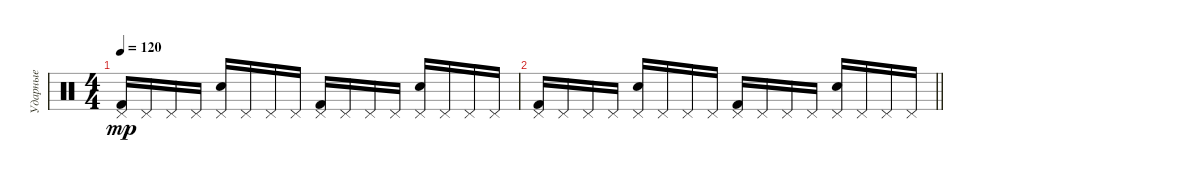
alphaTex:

\track ("Ударные" "Ударные") {instrument percussion}
\staff {score}
\articulation defaults
\ts (4 4)
\tempo 120
\clef neutral
\ks c
("Pedal Hi-Hat (hit)" "Kick (hit) 2").16{dy mp} "Pedal Hi-Hat (hit)".16 "Pedal Hi-Hat (hit)".16 "Pedal Hi-Hat (hit)".16 ("Pedal Hi-Hat (hit)" "Snare (hit) 2").16 "Pedal Hi-Hat (hit)".16 "Pedal Hi-Hat (hit)".16 "Pedal Hi-Hat (hit)".16 ("Pedal Hi-Hat (hit)" "Kick (hit) 2").16 "Pedal Hi-Hat (hit)".16 "Pedal Hi-Hat (hit)".16 "Pedal Hi-Hat (hit)".16 ("Pedal Hi-Hat (hit)" "Snare (hit) 2").16 "Pedal Hi-Hat (hit)".16 "Pedal Hi-Hat (hit)".16 "Pedal Hi-Hat (hit)".16 |
\barLineRight lightlight
("Pedal Hi-Hat (hit)" "Kick (hit) 2").16 "Pedal Hi-Hat (hit)".16 "Pedal Hi-Hat (hit)".16 "Pedal Hi-Hat (hit)".16 ("Pedal Hi-Hat (hit)" "Snare (hit) 2").16 "Pedal Hi-Hat (hit)".16 "Pedal Hi-Hat (hit)".16 "Pedal Hi-Hat (hit)".16 ("Pedal Hi-Hat (hit)" "Kick (hit) 2").16 "Pedal Hi-Hat (hit)".16 "Pedal Hi-Hat (hit)".16 "Pedal Hi-Hat (hit)".16 ("Pedal Hi-Hat (hit)" "Snare (hit) 2").16 "Pedal Hi-Hat (hit)".16 "Pedal Hi-Hat (hit)".16 "Pedal Hi-Hat (hit)".16
